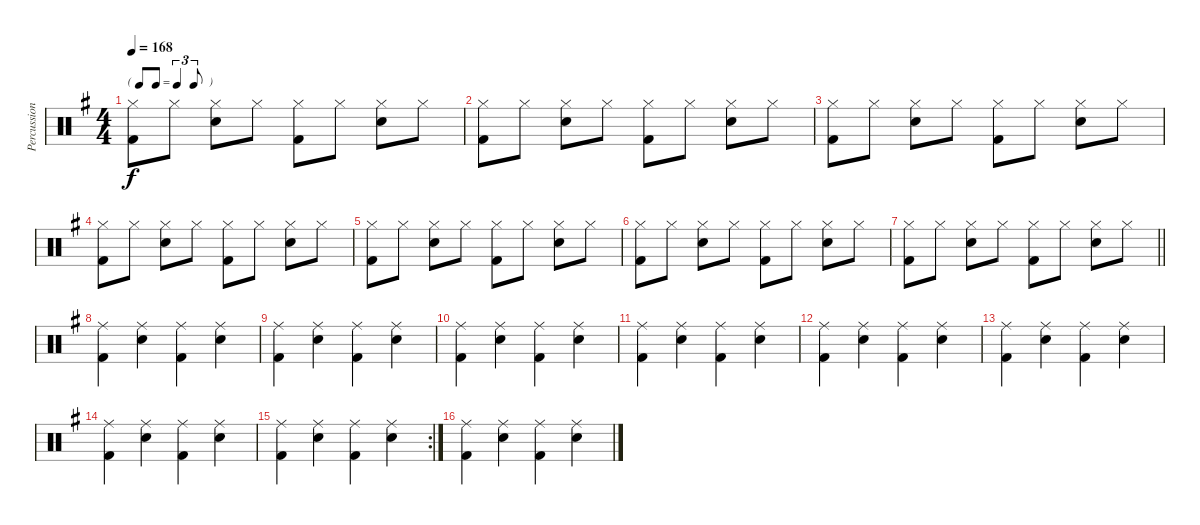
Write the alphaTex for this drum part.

\track ("Percussion" "Percussion") {instrument percussion}
\staff {score}
\articulation defaults
\ts (4 4)
\tf triplet8th
\tempo 168
\clef neutral
\ks g
("Hi-Hat (closed)" "Kick (hit) 2").8{dy f} "Hi-Hat (closed)".8 ("Hi-Hat (closed)" "Snare (hit) 2").8 "Hi-Hat (closed)".8 ("Hi-Hat (closed)" "Kick (hit) 2").8 "Hi-Hat (closed)".8 ("Hi-Hat (closed)" "Snare (hit) 2").8 "Hi-Hat (closed)".8 |
("Hi-Hat (closed)" "Kick (hit) 2").8 "Hi-Hat (closed)".8 ("Hi-Hat (closed)" "Snare (hit) 2").8 "Hi-Hat (closed)".8 ("Hi-Hat (closed)" "Kick (hit) 2").8 "Hi-Hat (closed)".8 ("Hi-Hat (closed)" "Snare (hit) 2").8 "Hi-Hat (closed)".8 |
("Hi-Hat (closed)" "Kick (hit) 2").8 "Hi-Hat (closed)".8 ("Hi-Hat (closed)" "Snare (hit) 2").8 "Hi-Hat (closed)".8 ("Hi-Hat (closed)" "Kick (hit) 2").8 "Hi-Hat (closed)".8 ("Hi-Hat (closed)" "Snare (hit) 2").8 "Hi-Hat (closed)".8 |
("Hi-Hat (closed)" "Kick (hit) 2").8 "Hi-Hat (closed)".8 ("Hi-Hat (closed)" "Snare (hit) 2").8 "Hi-Hat (closed)".8 ("Hi-Hat (closed)" "Kick (hit) 2").8 "Hi-Hat (closed)".8 ("Hi-Hat (closed)" "Snare (hit) 2").8 "Hi-Hat (closed)".8 |
("Hi-Hat (closed)" "Kick (hit) 2").8 "Hi-Hat (closed)".8 ("Hi-Hat (closed)" "Snare (hit) 2").8 "Hi-Hat (closed)".8 ("Hi-Hat (closed)" "Kick (hit) 2").8 "Hi-Hat (closed)".8 ("Hi-Hat (closed)" "Snare (hit) 2").8 "Hi-Hat (closed)".8 |
("Hi-Hat (closed)" "Kick (hit) 2").8 "Hi-Hat (closed)".8 ("Hi-Hat (closed)" "Snare (hit) 2").8 "Hi-Hat (closed)".8 ("Hi-Hat (closed)" "Kick (hit) 2").8 "Hi-Hat (closed)".8 ("Hi-Hat (closed)" "Snare (hit) 2").8 "Hi-Hat (closed)".8 |
\barLineRight lightlight
("Hi-Hat (closed)" "Kick (hit) 2").8 "Hi-Hat (closed)".8 ("Hi-Hat (closed)" "Snare (hit) 2").8 "Hi-Hat (closed)".8 ("Hi-Hat (closed)" "Kick (hit) 2").8 "Hi-Hat (closed)".8 ("Hi-Hat (closed)" "Snare (hit) 2").8 "Hi-Hat (closed)".8 |
("Ride (middle)" "Kick (hit) 2").4 ("Ride (middle)" "Snare (hit) 2").4 ("Ride (middle)" "Kick (hit) 2").4 ("Ride (middle)" "Snare (hit) 2").4 |
("Ride (middle)" "Kick (hit) 2").4 ("Ride (middle)" "Snare (hit) 2").4 ("Ride (middle)" "Kick (hit) 2").4 ("Ride (middle)" "Snare (hit) 2").4 |
("Ride (middle)" "Kick (hit) 2").4 ("Ride (middle)" "Snare (hit) 2").4 ("Ride (middle)" "Kick (hit) 2").4 ("Ride (middle)" "Snare (hit) 2").4 |
("Ride (middle)" "Kick (hit) 2").4 ("Ride (middle)" "Snare (hit) 2").4 ("Ride (middle)" "Kick (hit) 2").4 ("Ride (middle)" "Snare (hit) 2").4 |
("Ride (middle)" "Kick (hit) 2").4 ("Ride (middle)" "Snare (hit) 2").4 ("Ride (middle)" "Kick (hit) 2").4 ("Ride (middle)" "Snare (hit) 2").4 |
("Ride (middle)" "Kick (hit) 2").4 ("Ride (middle)" "Snare (hit) 2").4 ("Ride (middle)" "Kick (hit) 2").4 ("Ride (middle)" "Snare (hit) 2").4 |
("Ride (middle)" "Kick (hit) 2").4 ("Ride (middle)" "Snare (hit) 2").4 ("Ride (middle)" "Kick (hit) 2").4 ("Ride (middle)" "Snare (hit) 2").4 |
\rc 2
("Ride (middle)" "Kick (hit) 2").4 ("Ride (middle)" "Snare (hit) 2").4 ("Ride (middle)" "Kick (hit) 2").4 ("Ride (middle)" "Snare (hit) 2").4 |
("Ride (middle)" "Kick (hit) 2").4 ("Ride (middle)" "Snare (hit) 2").4 ("Ride (middle)" "Kick (hit) 2").4 ("Ride (middle)" "Snare (hit) 2").4
